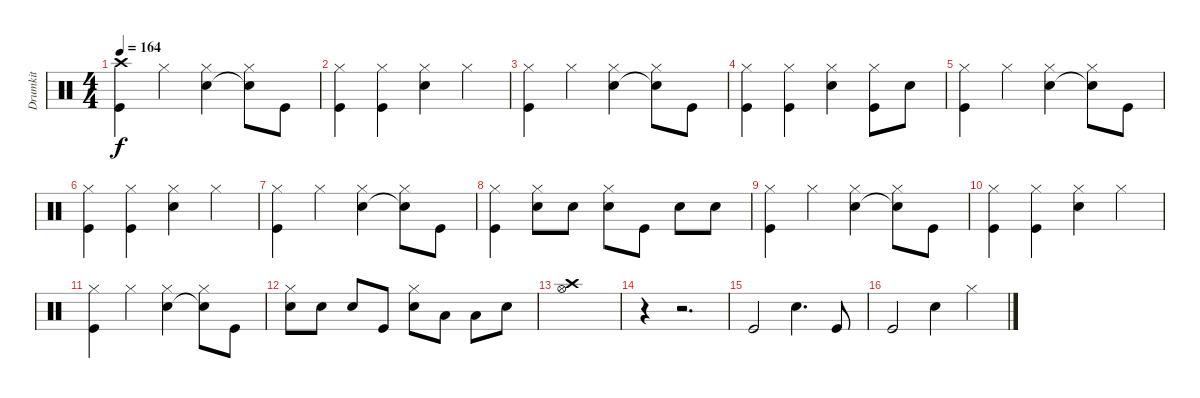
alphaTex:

\track ("Drumkit" "Drumkit") {instrument percussion}
\staff {score}
\articulation defaults
\ts (4 4)
\tempo 164
\clef neutral
\ks c
("Crash high (hit)" "Kick (hit)").4{dy f} "Hi-Hat (closed)".4 ("Hi-Hat (closed)" "Snare (hit) 2").4 ("Hi-Hat (closed)" "Snare (hit) 2"{t}).8 "Kick (hit)".8 |
("Hi-Hat (closed)" "Kick (hit)").4 ("Hi-Hat (closed)" "Kick (hit)").4 ("Hi-Hat (closed)" "Snare (hit) 2").4 "Hi-Hat (closed)".4 |
("Hi-Hat (closed)" "Kick (hit)").4 "Hi-Hat (closed)".4 ("Hi-Hat (closed)" "Snare (hit) 2").4 ("Hi-Hat (closed)" "Snare (hit) 2"{t}).8 "Kick (hit)".8 |
("Hi-Hat (closed)" "Kick (hit)").4 ("Hi-Hat (closed)" "Kick (hit)").4 ("Hi-Hat (closed)" "Snare (hit) 2").4 ("Hi-Hat (closed)" "Kick (hit)").8 "Snare (hit) 2".8 |
("Hi-Hat (closed)" "Kick (hit)").4 "Hi-Hat (closed)".4 ("Hi-Hat (closed)" "Snare (hit) 2").4 ("Hi-Hat (closed)" "Snare (hit) 2"{t}).8 "Kick (hit)".8 |
("Hi-Hat (closed)" "Kick (hit)").4 ("Hi-Hat (closed)" "Kick (hit)").4 ("Hi-Hat (closed)" "Snare (hit) 2").4 "Hi-Hat (closed)".4 |
("Hi-Hat (closed)" "Kick (hit)").4 "Hi-Hat (closed)".4 ("Hi-Hat (closed)" "Snare (hit) 2").4 ("Hi-Hat (closed)" "Snare (hit) 2"{t}).8 "Kick (hit)".8 |
("Hi-Hat (closed)" "Kick (hit)").4 ("Hi-Hat (closed)" "Snare (hit) 2").8 "Snare (hit) 2".8 ("Hi-Hat (closed)" "Snare (hit) 2").8 "Kick (hit)".8 "Snare (hit) 2".8 "Snare (hit) 2".8 |
("Hi-Hat (closed)" "Kick (hit)").4 "Hi-Hat (closed)".4 ("Hi-Hat (closed)" "Snare (hit) 2").4 ("Hi-Hat (closed)" "Snare (hit) 2"{t}).8 "Kick (hit)".8 |
("Hi-Hat (closed)" "Kick (hit)").4 ("Hi-Hat (closed)" "Kick (hit)").4 ("Hi-Hat (closed)" "Snare (hit) 2").4 "Hi-Hat (closed)".4 |
("Hi-Hat (closed)" "Kick (hit)").4 "Hi-Hat (closed)".4 ("Hi-Hat (closed)" "Snare (hit) 2").4 ("Hi-Hat (closed)" "Snare (hit) 2"{t}).8 "Kick (hit)".8 |
("Hi-Hat (closed)" "Snare (hit) 2").8 "Snare (hit) 2".8 "Snare (hit) 2".8 "Kick (hit)".8 ("Hi-Hat (closed)" "Snare (hit) 2").8 "Low Tom (hit)".8 "Low Tom (hit)".8 "Snare (hit) 2".8 |
("Hi-Hat (open)" "Crash high (hit)").1 |
r.4 r.2{d} |
"Kick (hit)".2 "Snare (hit) 2".4{d} "Kick (hit)".8 |
"Kick (hit)".2 "Snare (hit) 2".4 "Hi-Hat (closed)".4
